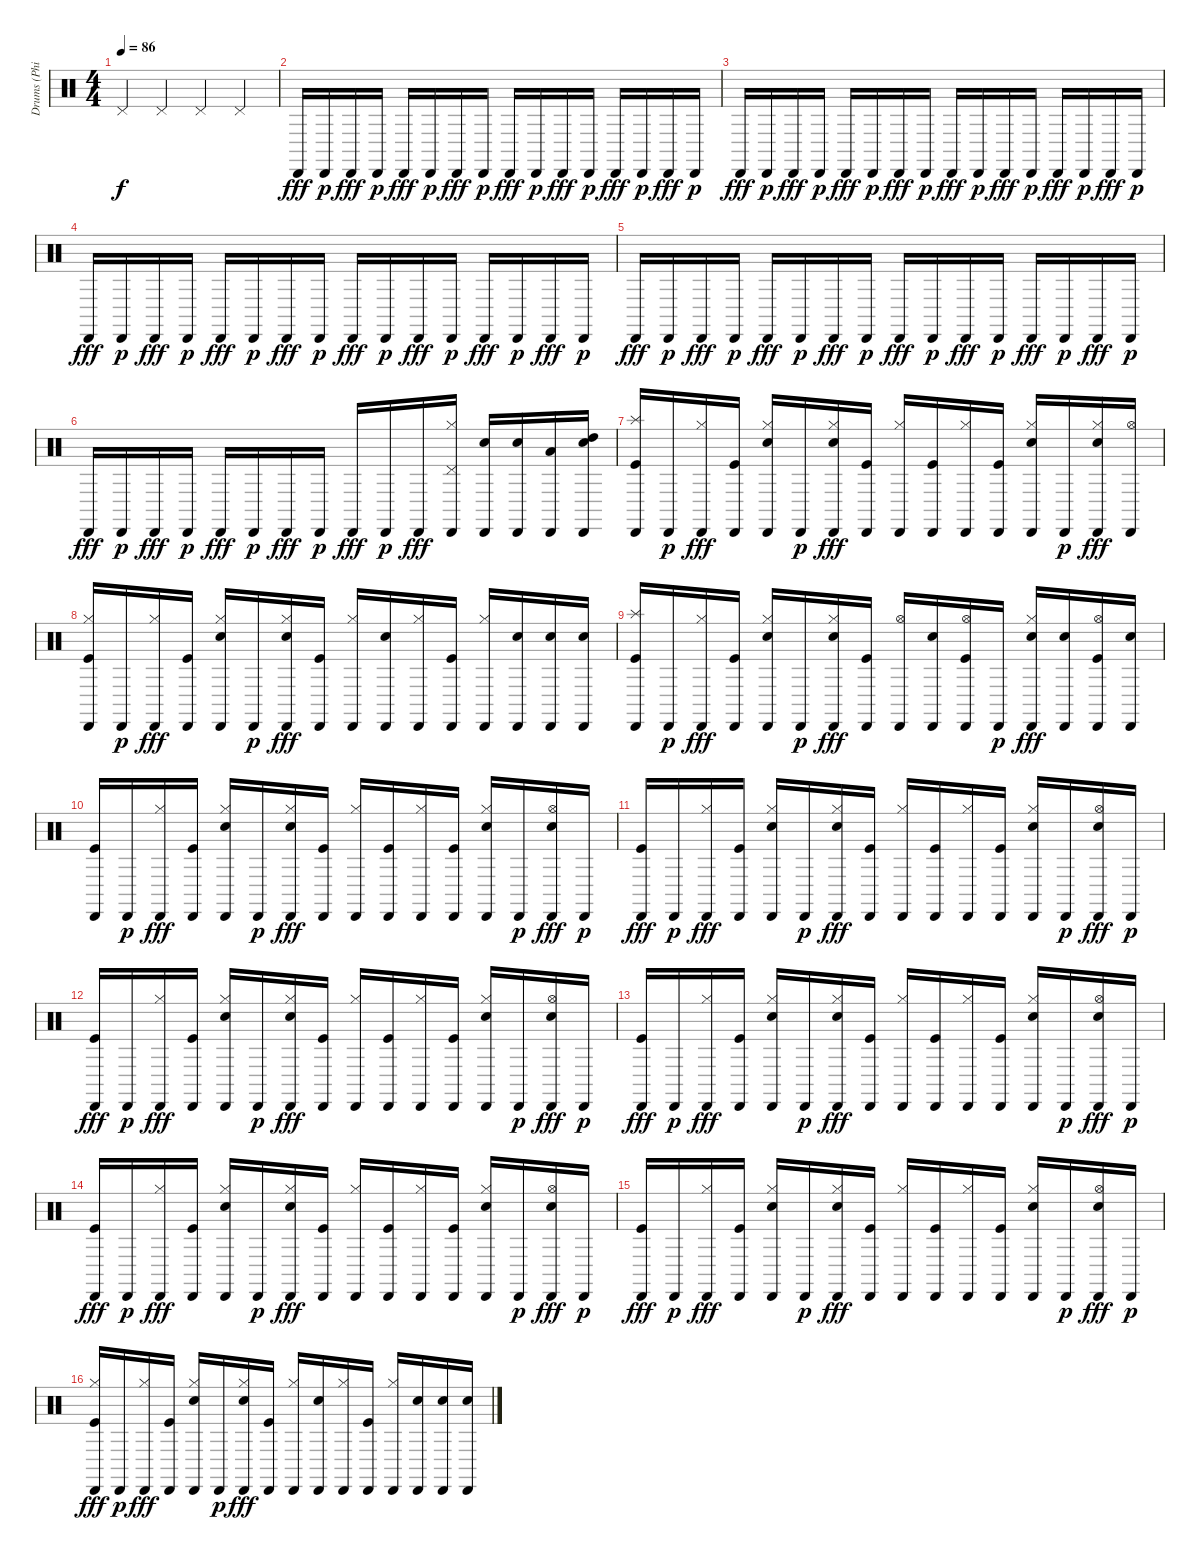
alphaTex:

\track ("Drums (Phil)" "Drums (Phi") {instrument percussion}
\staff {score}
\articulation defaults
\ts (4 4)
\tempo 86
\clef neutral
\ks c "Pedal Hi-Hat (hit)".4{dy f} "Pedal Hi-Hat (hit)".4 "Pedal Hi-Hat (hit)".4 "Pedal Hi-Hat (hit)".4
|
"Cabasa (hit)".16{dy fff} "Cabasa (hit)".16{dy p} "Cabasa (hit)".16{dy fff} "Cabasa (hit)".16{dy p} "Cabasa (hit)".16{dy fff} "Cabasa (hit)".16{dy p} "Cabasa (hit)".16{dy fff} "Cabasa (hit)".16{dy p} "Cabasa (hit)".16{dy fff} "Cabasa (hit)".16{dy p} "Cabasa (hit)".16{dy fff} "Cabasa (hit)".16{dy p} "Cabasa (hit)".16{dy fff} "Cabasa (hit)".16{dy p} "Cabasa (hit)".16{dy fff} "Cabasa (hit)".16{dy p} |
"Cabasa (hit)".16{dy fff} "Cabasa (hit)".16{dy p} "Cabasa (hit)".16{dy fff} "Cabasa (hit)".16{dy p} "Cabasa (hit)".16{dy fff} "Cabasa (hit)".16{dy p} "Cabasa (hit)".16{dy fff} "Cabasa (hit)".16{dy p} "Cabasa (hit)".16{dy fff} "Cabasa (hit)".16{dy p} "Cabasa (hit)".16{dy fff} "Cabasa (hit)".16{dy p} "Cabasa (hit)".16{dy fff} "Cabasa (hit)".16{dy p} "Cabasa (hit)".16{dy fff} "Cabasa (hit)".16{dy p} |
"Cabasa (hit)".16{dy fff} "Cabasa (hit)".16{dy p} "Cabasa (hit)".16{dy fff} "Cabasa (hit)".16{dy p} "Cabasa (hit)".16{dy fff} "Cabasa (hit)".16{dy p} "Cabasa (hit)".16{dy fff} "Cabasa (hit)".16{dy p} "Cabasa (hit)".16{dy fff} "Cabasa (hit)".16{dy p} "Cabasa (hit)".16{dy fff} "Cabasa (hit)".16{dy p} "Cabasa (hit)".16{dy fff} "Cabasa (hit)".16{dy p} "Cabasa (hit)".16{dy fff} "Cabasa (hit)".16{dy p} |
"Cabasa (hit)".16{dy fff} "Cabasa (hit)".16{dy p} "Cabasa (hit)".16{dy fff} "Cabasa (hit)".16{dy p} "Cabasa (hit)".16{dy fff} "Cabasa (hit)".16{dy p} "Cabasa (hit)".16{dy fff} "Cabasa (hit)".16{dy p} "Cabasa (hit)".16{dy fff} "Cabasa (hit)".16{dy p} "Cabasa (hit)".16{dy fff} "Cabasa (hit)".16{dy p} "Cabasa (hit)".16{dy fff} "Cabasa (hit)".16{dy p} "Cabasa (hit)".16{dy fff} "Cabasa (hit)".16{dy p} |
"Cabasa (hit)".16{dy fff} "Cabasa (hit)".16{dy p} "Cabasa (hit)".16{dy fff} "Cabasa (hit)".16{dy p} "Cabasa (hit)".16{dy fff} "Cabasa (hit)".16{dy p} "Cabasa (hit)".16{dy fff} "Cabasa (hit)".16{dy p} "Cabasa (hit)".16{dy fff} "Cabasa (hit)".16{dy p} "Cabasa (hit)".16{dy fff} ("Cabasa (hit)" "Pedal Hi-Hat (hit)" "Hi-Hat (closed)").16 ("Cabasa (hit)" "Snare (hit) 2").16 ("Cabasa (hit)" "Snare (hit) 2").16 ("Cabasa (hit)" "Low Tom (hit)").16 ("Cabasa (hit)" "High Tom (hit)" "Hand Clap (hit)").16 |
("Cabasa (hit)" "Splash (hit)" "Kick (hit)").16 "Cabasa (hit)".16{dy p} ("Cabasa (hit)" "Hi-Hat (closed)").16{dy fff} ("Cabasa (hit)" "Kick (hit)").16 ("Cabasa (hit)" "Hi-Hat (closed)" "Snare (hit) 2").16 "Cabasa (hit)".16{dy p} ("Cabasa (hit)" "Hi-Hat (closed)" "Snare (hit) 2").16{dy fff} ("Cabasa (hit)" "Kick (hit)").16 ("Cabasa (hit)" "Hi-Hat (closed)").16 ("Cabasa (hit)" "Kick (hit)").16 ("Cabasa (hit)" "Hi-Hat (closed)").16 ("Cabasa (hit)" "Kick (hit)").16 ("Cabasa (hit)" "Hi-Hat (closed)" "Snare (hit) 2").16 "Cabasa (hit)".16{dy p} ("Cabasa (hit)" "Hi-Hat (closed)" "Snare (hit) 2").16{dy fff} ("Cabasa (hit)" "Hi-Hat (open)").16 |
("Cabasa (hit)" "Hi-Hat (closed)" "Kick (hit)").16 "Cabasa (hit)".16{dy p} ("Cabasa (hit)" "Hi-Hat (closed)").16{dy fff} ("Cabasa (hit)" "Kick (hit)").16 ("Cabasa (hit)" "Hi-Hat (closed)" "Snare (hit) 2").16 "Cabasa (hit)".16{dy p} ("Cabasa (hit)" "Hi-Hat (closed)" "Snare (hit) 2").16{dy fff} ("Cabasa (hit)" "Kick (hit)").16 ("Cabasa (hit)" "Hi-Hat (closed)").16 ("Cabasa (hit)" "Snare (hit) 2").16 ("Cabasa (hit)" "Hi-Hat (closed)").16 ("Cabasa (hit)" "Kick (hit)").16 ("Cabasa (hit)" "Hi-Hat (closed)").16 ("Cabasa (hit)" "Snare (hit) 2").16 ("Cabasa (hit)" "Snare (hit) 2").16 ("Cabasa (hit)" "Snare (hit) 2").16 |
("Cabasa (hit)" "Splash (hit)" "Kick (hit)").16 "Cabasa (hit)".16{dy p} ("Cabasa (hit)" "Hi-Hat (closed)").16{dy fff} ("Cabasa (hit)" "Kick (hit)").16 ("Cabasa (hit)" "Hi-Hat (closed)" "Snare (hit) 2").16 "Cabasa (hit)".16{dy p} ("Cabasa (hit)" "Hi-Hat (closed)" "Snare (hit) 2").16{dy fff} ("Cabasa (hit)" "Kick (hit)").16 ("Cabasa (hit)" "Hi-Hat (open)").16 ("Cabasa (hit)" "Snare (hit) 2").16 ("Cabasa (hit)" "Hi-Hat (open)" "Kick (hit)").16 "Cabasa (hit)".16{dy p} ("Cabasa (hit)" "Hi-Hat (closed)" "Snare (hit) 2").16{dy fff} ("Cabasa (hit)" "Snare (hit) 2").16 ("Cabasa (hit)" "Hi-Hat (open)" "Kick (hit)").16 ("Cabasa (hit)" "Snare (hit) 2").16 |
("Cabasa (hit)" "Kick (hit)").16 "Cabasa (hit)".16{dy p} ("Cabasa (hit)" "Hi-Hat (closed)").16{dy fff} ("Cabasa (hit)" "Kick (hit)").16 ("Cabasa (hit)" "Hi-Hat (closed)" "Snare (hit) 2").16 "Cabasa (hit)".16{dy p} ("Cabasa (hit)" "Hi-Hat (closed)" "Snare (hit) 2").16{dy fff} ("Cabasa (hit)" "Kick (hit)").16 ("Cabasa (hit)" "Hi-Hat (closed)").16 ("Cabasa (hit)" "Kick (hit)").16 ("Cabasa (hit)" "Hi-Hat (closed)").16 ("Cabasa (hit)" "Kick (hit)").16 ("Cabasa (hit)" "Hi-Hat (closed)" "Snare (hit) 2").16 "Cabasa (hit)".16{dy p} ("Cabasa (hit)" "Hi-Hat (open)" "Snare (hit) 2").16{dy fff} "Cabasa (hit)".16{dy p} |
("Cabasa (hit)" "Kick (hit)").16{dy fff} "Cabasa (hit)".16{dy p} ("Cabasa (hit)" "Hi-Hat (closed)").16{dy fff} ("Cabasa (hit)" "Kick (hit)").16 ("Cabasa (hit)" "Hi-Hat (closed)" "Snare (hit) 2").16 "Cabasa (hit)".16{dy p} ("Cabasa (hit)" "Hi-Hat (closed)" "Snare (hit) 2").16{dy fff} ("Cabasa (hit)" "Kick (hit)").16 ("Cabasa (hit)" "Hi-Hat (closed)").16 ("Cabasa (hit)" "Kick (hit)").16 ("Cabasa (hit)" "Hi-Hat (closed)").16 ("Cabasa (hit)" "Kick (hit)").16 ("Cabasa (hit)" "Hi-Hat (closed)" "Snare (hit) 2").16 "Cabasa (hit)".16{dy p} ("Cabasa (hit)" "Hi-Hat (open)" "Snare (hit) 2").16{dy fff} "Cabasa (hit)".16{dy p} |
("Cabasa (hit)" "Kick (hit)").16{dy fff} "Cabasa (hit)".16{dy p} ("Cabasa (hit)" "Hi-Hat (closed)").16{dy fff} ("Cabasa (hit)" "Kick (hit)").16 ("Cabasa (hit)" "Hi-Hat (closed)" "Snare (hit) 2").16 "Cabasa (hit)".16{dy p} ("Cabasa (hit)" "Hi-Hat (closed)" "Snare (hit) 2").16{dy fff} ("Cabasa (hit)" "Kick (hit)").16 ("Cabasa (hit)" "Hi-Hat (closed)").16 ("Cabasa (hit)" "Kick (hit)").16 ("Cabasa (hit)" "Hi-Hat (closed)").16 ("Cabasa (hit)" "Kick (hit)").16 ("Cabasa (hit)" "Hi-Hat (closed)" "Snare (hit) 2").16 "Cabasa (hit)".16{dy p} ("Cabasa (hit)" "Hi-Hat (open)" "Snare (hit) 2").16{dy fff} "Cabasa (hit)".16{dy p} |
("Cabasa (hit)" "Kick (hit)").16{dy fff} "Cabasa (hit)".16{dy p} ("Cabasa (hit)" "Hi-Hat (closed)").16{dy fff} ("Cabasa (hit)" "Kick (hit)").16 ("Cabasa (hit)" "Hi-Hat (closed)" "Snare (hit) 2").16 "Cabasa (hit)".16{dy p} ("Cabasa (hit)" "Hi-Hat (closed)" "Snare (hit) 2").16{dy fff} ("Cabasa (hit)" "Kick (hit)").16 ("Cabasa (hit)" "Hi-Hat (closed)").16 ("Cabasa (hit)" "Kick (hit)").16 ("Cabasa (hit)" "Hi-Hat (closed)").16 ("Cabasa (hit)" "Kick (hit)").16 ("Cabasa (hit)" "Hi-Hat (closed)" "Snare (hit) 2").16 "Cabasa (hit)".16{dy p} ("Cabasa (hit)" "Hi-Hat (open)" "Snare (hit) 2").16{dy fff} "Cabasa (hit)".16{dy p} |
("Cabasa (hit)" "Kick (hit)").16{dy fff} "Cabasa (hit)".16{dy p} ("Cabasa (hit)" "Hi-Hat (closed)").16{dy fff} ("Cabasa (hit)" "Kick (hit)").16 ("Cabasa (hit)" "Hi-Hat (closed)" "Snare (hit) 2").16 "Cabasa (hit)".16{dy p} ("Cabasa (hit)" "Hi-Hat (closed)" "Snare (hit) 2").16{dy fff} ("Cabasa (hit)" "Kick (hit)").16 ("Cabasa (hit)" "Hi-Hat (closed)").16 ("Cabasa (hit)" "Kick (hit)").16 ("Cabasa (hit)" "Hi-Hat (closed)").16 ("Cabasa (hit)" "Kick (hit)").16 ("Cabasa (hit)" "Hi-Hat (closed)" "Snare (hit) 2").16 "Cabasa (hit)".16{dy p} ("Cabasa (hit)" "Hi-Hat (open)" "Snare (hit) 2").16{dy fff} "Cabasa (hit)".16{dy p} |
("Cabasa (hit)" "Kick (hit)").16{dy fff} "Cabasa (hit)".16{dy p} ("Cabasa (hit)" "Hi-Hat (closed)").16{dy fff} ("Cabasa (hit)" "Kick (hit)").16 ("Cabasa (hit)" "Hi-Hat (closed)" "Snare (hit) 2").16 "Cabasa (hit)".16{dy p} ("Cabasa (hit)" "Hi-Hat (closed)" "Snare (hit) 2").16{dy fff} ("Cabasa (hit)" "Kick (hit)").16 ("Cabasa (hit)" "Hi-Hat (closed)").16 ("Cabasa (hit)" "Kick (hit)").16 ("Cabasa (hit)" "Hi-Hat (closed)").16 ("Cabasa (hit)" "Kick (hit)").16 ("Cabasa (hit)" "Hi-Hat (closed)" "Snare (hit) 2").16 "Cabasa (hit)".16{dy p} ("Cabasa (hit)" "Hi-Hat (open)" "Snare (hit) 2").16{dy fff} "Cabasa (hit)".16{dy p} |
("Cabasa (hit)" "Hi-Hat (closed)" "Kick (hit)").16{dy fff} "Cabasa (hit)".16{dy p} ("Cabasa (hit)" "Hi-Hat (closed)").16{dy fff} ("Cabasa (hit)" "Kick (hit)").16 ("Cabasa (hit)" "Hi-Hat (closed)" "Snare (hit) 2").16 "Cabasa (hit)".16{dy p} ("Cabasa (hit)" "Hi-Hat (closed)" "Snare (hit) 2").16{dy fff} ("Cabasa (hit)" "Kick (hit)").16 ("Cabasa (hit)" "Hi-Hat (closed)").16 ("Cabasa (hit)" "Snare (hit) 2").16 ("Cabasa (hit)" "Hi-Hat (closed)").16 ("Cabasa (hit)" "Kick (hit)").16 ("Cabasa (hit)" "Hi-Hat (closed)").16 ("Cabasa (hit)" "Snare (hit) 2").16 ("Cabasa (hit)" "Snare (hit) 2").16 ("Cabasa (hit)" "Snare (hit) 2").16
